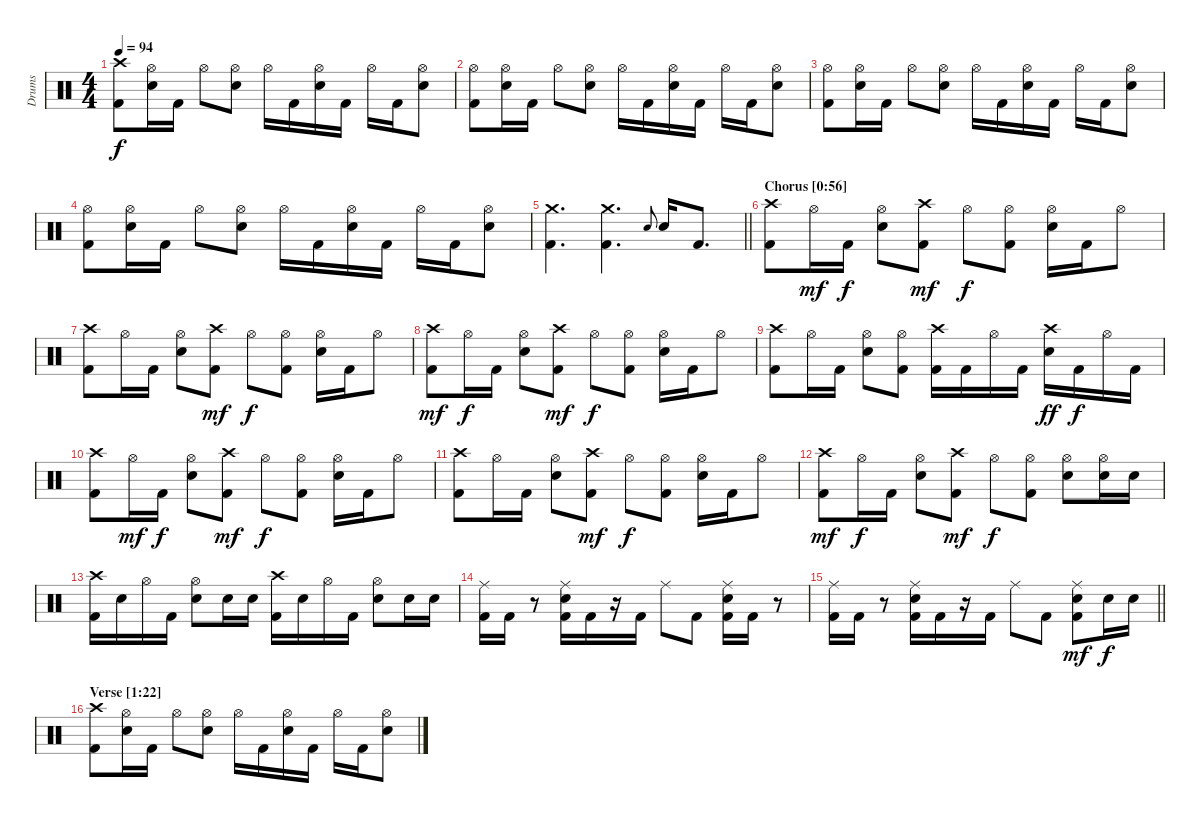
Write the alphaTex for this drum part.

\track ("Drums" "Drums") {instrument percussion}
\staff {score}
\articulation defaults
\ts (4 4)
\tempo 94
\clef neutral
\ks c
("Crash high (hit)" "Kick (hit) 2").8{dy f} ("Hi-Hat (open)" "Electric Snare (hit)").16 "Kick (hit) 2".16 "Hi-Hat (open)".8 ("Hi-Hat (open)" "Electric Snare (hit)").8 "Hi-Hat (open)".16 "Kick (hit) 2".16 ("Hi-Hat (open)" "Electric Snare (hit)").16 "Kick (hit) 2".16 "Hi-Hat (open)".16 "Kick (hit) 2".16 ("Hi-Hat (open)" "Electric Snare (hit)").8 |
("Hi-Hat (open)" "Kick (hit) 2").8 ("Hi-Hat (open)" "Electric Snare (hit)").16 "Kick (hit) 2".16 "Hi-Hat (open)".8 ("Hi-Hat (open)" "Electric Snare (hit)").8 "Hi-Hat (open)".16 "Kick (hit) 2".16 ("Hi-Hat (open)" "Electric Snare (hit)").16 "Kick (hit) 2".16 "Hi-Hat (open)".16 "Kick (hit) 2".16 ("Hi-Hat (open)" "Electric Snare (hit)").8 |
("Hi-Hat (open)" "Kick (hit) 2").8 ("Hi-Hat (open)" "Electric Snare (hit)").16 "Kick (hit) 2".16 "Hi-Hat (open)".8 ("Hi-Hat (open)" "Electric Snare (hit)").8 "Hi-Hat (open)".16 "Kick (hit) 2".16 ("Hi-Hat (open)" "Electric Snare (hit)").16 "Kick (hit) 2".16 "Hi-Hat (open)".16 "Kick (hit) 2".16 ("Hi-Hat (open)" "Electric Snare (hit)").8 |
("Hi-Hat (open)" "Kick (hit) 2").8 ("Hi-Hat (open)" "Electric Snare (hit)").16 "Kick (hit) 2".16 "Hi-Hat (open)".8 ("Hi-Hat (open)" "Electric Snare (hit)").8 "Hi-Hat (open)".16 "Kick (hit) 2".16 ("Hi-Hat (open)" "Electric Snare (hit)").16 "Kick (hit) 2".16 "Hi-Hat (open)".16 "Kick (hit) 2".16 ("Hi-Hat (open)" "Electric Snare (hit)").8 |
\barLineRight lightlight
("Crash medium (hit)" "Kick (hit) 2").4{d} ("Crash medium (hit)" "Kick (hit) 2").4{d} "Snare (hit) 2".8{gr onbeat} "Snare (hit) 2".16 "Kick (hit) 2".8{d} |
\section ("" "Chorus [0:56]")
("Crash high (hit)" "Kick (hit) 2").8 "Hi-Hat (open)".16{dy mf} "Kick (hit) 2".16{dy f} ("Hi-Hat (open)" "Electric Snare (hit)").8 ("Crash high (hit)" "Kick (hit) 2").8{dy mf} "Hi-Hat (open)".8{dy f} ("Hi-Hat (open)" "Kick (hit) 2").8 ("Hi-Hat (open)" "Electric Snare (hit)").16 "Kick (hit) 2".16 "Hi-Hat (open)".8 |
("Crash high (hit)" "Kick (hit) 2").8 "Hi-Hat (open)".16 "Kick (hit) 2".16 ("Hi-Hat (open)" "Electric Snare (hit)").8 ("Crash high (hit)" "Kick (hit) 2").8{dy mf} "Hi-Hat (open)".8{dy f} ("Hi-Hat (open)" "Kick (hit) 2").8 ("Hi-Hat (open)" "Electric Snare (hit)").16 "Kick (hit) 2".16 "Hi-Hat (open)".8 |
("Crash high (hit)" "Kick (hit) 2").8{dy mf} "Hi-Hat (open)".16{dy f} "Kick (hit) 2".16 ("Hi-Hat (open)" "Electric Snare (hit)").8 ("Crash high (hit)" "Kick (hit) 2").8{dy mf} "Hi-Hat (open)".8{dy f} ("Hi-Hat (open)" "Kick (hit) 2").8 ("Hi-Hat (open)" "Electric Snare (hit)").16 "Kick (hit) 2".16 "Hi-Hat (open)".8 |
("Crash high (hit)" "Kick (hit) 2").8 "Hi-Hat (open)".16 "Kick (hit) 2".16 ("Hi-Hat (open)" "Electric Snare (hit)").8 ("Hi-Hat (open)" "Kick (hit) 2").8 ("Crash high (hit)" "Kick (hit) 2").16 "Kick (hit) 2".16 "Hi-Hat (open)".16 "Kick (hit) 2".16 ("Crash high (hit)" "Electric Snare (hit)").16{dy ff} "Kick (hit) 2".16{dy f} "Hi-Hat (open)".16 "Kick (hit) 2".16 |
("Crash high (hit)" "Kick (hit) 2").8 "Hi-Hat (open)".16{dy mf} "Kick (hit) 2".16{dy f} ("Hi-Hat (open)" "Electric Snare (hit)").8 ("Crash high (hit)" "Kick (hit) 2").8{dy mf} "Hi-Hat (open)".8{dy f} ("Hi-Hat (open)" "Kick (hit) 2").8 ("Hi-Hat (open)" "Electric Snare (hit)").16 "Kick (hit) 2".16 "Hi-Hat (open)".8 |
("Crash high (hit)" "Kick (hit) 2").8 "Hi-Hat (open)".16 "Kick (hit) 2".16 ("Hi-Hat (open)" "Electric Snare (hit)").8 ("Crash high (hit)" "Kick (hit) 2").8{dy mf} "Hi-Hat (open)".8{dy f} ("Hi-Hat (open)" "Kick (hit) 2").8 ("Hi-Hat (open)" "Electric Snare (hit)").16 "Kick (hit) 2".16 "Hi-Hat (open)".8 |
("Crash high (hit)" "Kick (hit) 2").8{dy mf} "Hi-Hat (open)".16{dy f} "Kick (hit) 2".16 ("Hi-Hat (open)" "Electric Snare (hit)").8 ("Crash high (hit)" "Kick (hit) 2").8{dy mf} "Hi-Hat (open)".8{dy f} ("Hi-Hat (open)" "Kick (hit) 2").8 ("Hi-Hat (open)" "Electric Snare (hit)").8 ("Hi-Hat (open)" "Electric Snare (hit)").16 "Electric Snare (hit)".16 |
("Crash high (hit)" "Kick (hit) 2").16 "Electric Snare (hit)".16 "Hi-Hat (open)".16 "Kick (hit) 2".16 ("Hi-Hat (open)" "Electric Snare (hit)").8 "Electric Snare (hit)".16 "Electric Snare (hit)".16 ("Crash high (hit)" "Kick (hit) 2").16 "Electric Snare (hit)".16 "Hi-Hat (open)".16 "Kick (hit) 2".16 ("Hi-Hat (open)" "Electric Snare (hit)").8 "Electric Snare (hit)".16 "Electric Snare (hit)".16 |
("Ride (middle)" "Kick (hit) 2").16 "Kick (hit) 2".16 r.8 ("Ride (middle)" "Electric Snare (hit)" "Kick (hit) 2").16 "Kick (hit) 2".16 r.16 "Kick (hit) 2".16 "Ride (middle)".8 "Kick (hit) 2".8 ("Ride (middle)" "Electric Snare (hit)" "Kick (hit) 2").16 "Kick (hit) 2".16 r.8 |
\barLineRight lightlight
("Ride (middle)" "Kick (hit) 2").16 "Kick (hit) 2".16 r.8 ("Ride (middle)" "Electric Snare (hit)" "Kick (hit) 2").16 "Kick (hit) 2".16 r.16 "Kick (hit) 2".16 "Ride (middle)".8 "Kick (hit) 2".8 ("Ride (middle)" "Electric Snare (hit)" "Kick (hit) 2").8{dy mf} "Electric Snare (hit)".16{dy f} "Electric Snare (hit)".16 |
\section ("" "Verse [1:22]")
("Crash high (hit)" "Kick (hit) 2").8 ("Hi-Hat (open)" "Electric Snare (hit)").16 "Kick (hit) 2".16 "Hi-Hat (open)".8 ("Hi-Hat (open)" "Electric Snare (hit)").8 "Hi-Hat (open)".16 "Kick (hit) 2".16 ("Hi-Hat (open)" "Electric Snare (hit)").16 "Kick (hit) 2".16 "Hi-Hat (open)".16 "Kick (hit) 2".16 ("Hi-Hat (open)" "Electric Snare (hit)").8
